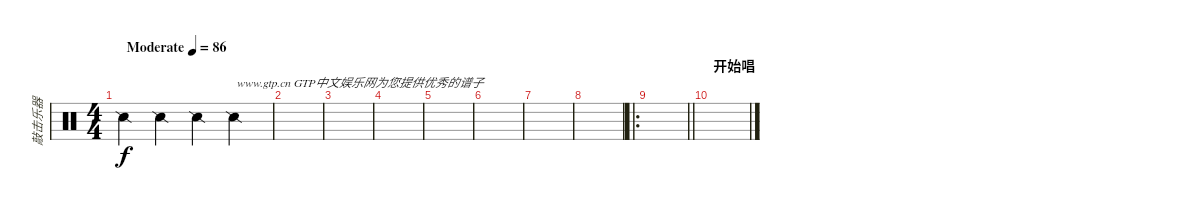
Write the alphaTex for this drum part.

\track ("敲击乐器" "敲击乐器") {instrument percussion}
\staff {score}
\articulation defaults
\ts (4 4)
\tempo (86 "Moderate")
\clef neutral
\ks c "Snare (side stick) 2".4{dy f} "Snare (side stick) 2".4 "Snare (side stick) 2".4 "Snare (side stick) 2".4{txt "www.gtp.cn GTP中文娱乐网为您提供优秀的谱子"}
|
|
|
|
|
|
|
|
\ro
\barLineRight lightlight
|
\section ("" "开始唱")
